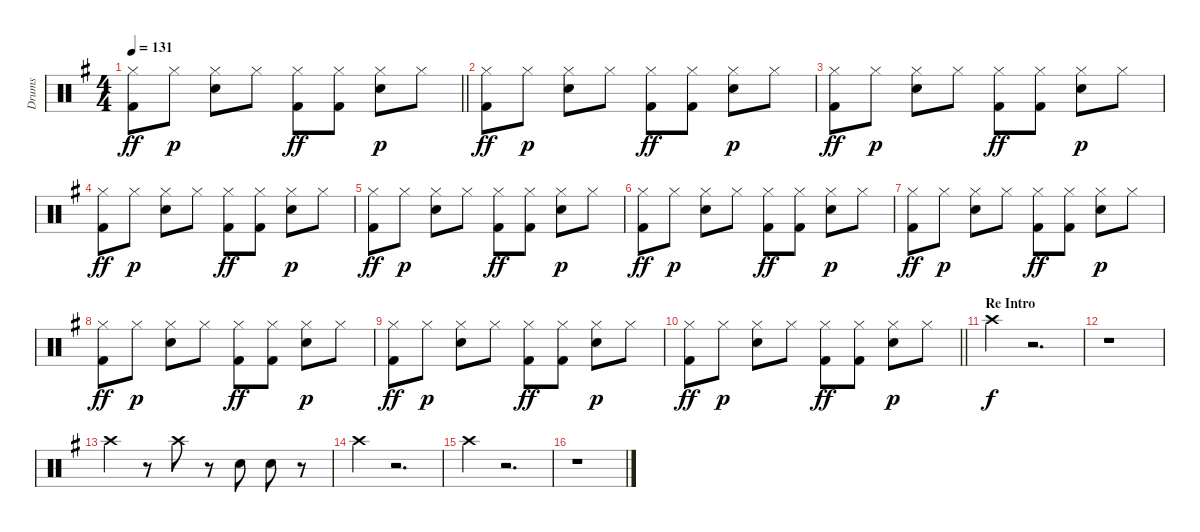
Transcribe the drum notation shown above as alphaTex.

\track ("Drums" "Drums") {instrument percussion}
\staff {score}
\articulation defaults
\ts (4 4)
\tempo 131
\clef neutral
\barLineRight lightlight
\ks g
("Hi-Hat (closed)" "Kick (hit) 2").8{dy ff} "Hi-Hat (closed)".8{dy p} ("Hi-Hat (closed)" "Snare (hit) 2").8 "Hi-Hat (closed)".8 ("Hi-Hat (closed)" "Kick (hit) 2").8{dy ff} ("Hi-Hat (closed)" "Kick (hit) 2").8 ("Hi-Hat (closed)" "Snare (hit) 2").8{dy p} "Hi-Hat (closed)".8 |
("Hi-Hat (closed)" "Kick (hit) 2").8{dy ff} "Hi-Hat (closed)".8{dy p} ("Hi-Hat (closed)" "Snare (hit) 2").8 "Hi-Hat (closed)".8 ("Hi-Hat (closed)" "Kick (hit) 2").8{dy ff} ("Hi-Hat (closed)" "Kick (hit) 2").8 ("Hi-Hat (closed)" "Snare (hit) 2").8{dy p} "Hi-Hat (closed)".8 |
("Hi-Hat (closed)" "Kick (hit) 2").8{dy ff} "Hi-Hat (closed)".8{dy p} ("Hi-Hat (closed)" "Snare (hit) 2").8 "Hi-Hat (closed)".8 ("Hi-Hat (closed)" "Kick (hit) 2").8{dy ff} ("Hi-Hat (closed)" "Kick (hit) 2").8 ("Hi-Hat (closed)" "Snare (hit) 2").8{dy p} "Hi-Hat (closed)".8 |
("Hi-Hat (closed)" "Kick (hit) 2").8{dy ff} "Hi-Hat (closed)".8{dy p} ("Hi-Hat (closed)" "Snare (hit) 2").8 "Hi-Hat (closed)".8 ("Hi-Hat (closed)" "Kick (hit) 2").8{dy ff} ("Hi-Hat (closed)" "Kick (hit) 2").8 ("Hi-Hat (closed)" "Snare (hit) 2").8{dy p} "Hi-Hat (closed)".8 |
("Hi-Hat (closed)" "Kick (hit) 2").8{dy ff} "Hi-Hat (closed)".8{dy p} ("Hi-Hat (closed)" "Snare (hit) 2").8 "Hi-Hat (closed)".8 ("Hi-Hat (closed)" "Kick (hit) 2").8{dy ff} ("Hi-Hat (closed)" "Kick (hit) 2").8 ("Hi-Hat (closed)" "Snare (hit) 2").8{dy p} "Hi-Hat (closed)".8 |
("Hi-Hat (closed)" "Kick (hit) 2").8{dy ff} "Hi-Hat (closed)".8{dy p} ("Hi-Hat (closed)" "Snare (hit) 2").8 "Hi-Hat (closed)".8 ("Hi-Hat (closed)" "Kick (hit) 2").8{dy ff} ("Hi-Hat (closed)" "Kick (hit) 2").8 ("Hi-Hat (closed)" "Snare (hit) 2").8{dy p} "Hi-Hat (closed)".8 |
("Hi-Hat (closed)" "Kick (hit) 2").8{dy ff} "Hi-Hat (closed)".8{dy p} ("Hi-Hat (closed)" "Snare (hit) 2").8 "Hi-Hat (closed)".8 ("Hi-Hat (closed)" "Kick (hit) 2").8{dy ff} ("Hi-Hat (closed)" "Kick (hit) 2").8 ("Hi-Hat (closed)" "Snare (hit) 2").8{dy p} "Hi-Hat (closed)".8 |
("Hi-Hat (closed)" "Kick (hit) 2").8{dy ff} "Hi-Hat (closed)".8{dy p} ("Hi-Hat (closed)" "Snare (hit) 2").8 "Hi-Hat (closed)".8 ("Hi-Hat (closed)" "Kick (hit) 2").8{dy ff} ("Hi-Hat (closed)" "Kick (hit) 2").8 ("Hi-Hat (closed)" "Snare (hit) 2").8{dy p} "Hi-Hat (closed)".8 |
("Hi-Hat (closed)" "Kick (hit) 2").8{dy ff} "Hi-Hat (closed)".8{dy p} ("Hi-Hat (closed)" "Snare (hit) 2").8 "Hi-Hat (closed)".8 ("Hi-Hat (closed)" "Kick (hit) 2").8{dy ff} ("Hi-Hat (closed)" "Kick (hit) 2").8 ("Hi-Hat (closed)" "Snare (hit) 2").8{dy p} "Hi-Hat (closed)".8 |
\barLineRight lightlight
("Hi-Hat (closed)" "Kick (hit) 2").8{dy ff} "Hi-Hat (closed)".8{dy p} ("Hi-Hat (closed)" "Snare (hit) 2").8 "Hi-Hat (closed)".8 ("Hi-Hat (closed)" "Kick (hit) 2").8{dy ff} ("Hi-Hat (closed)" "Kick (hit) 2").8 ("Hi-Hat (closed)" "Snare (hit) 2").8{dy p} "Hi-Hat (closed)".8 |
\section ("" "Re Intro")
"Crash high (hit)".4{dy f} r.2{d} |
r.1 |
"Crash high (hit)".4 r.8 "Crash high (hit)".8 r.8 "Snare (hit) 2".8 "Snare (hit) 2".8 r.8 |
"Crash high (hit)".4 r.2{d} |
"Crash high (hit)".4 r.2{d} |
r.1
